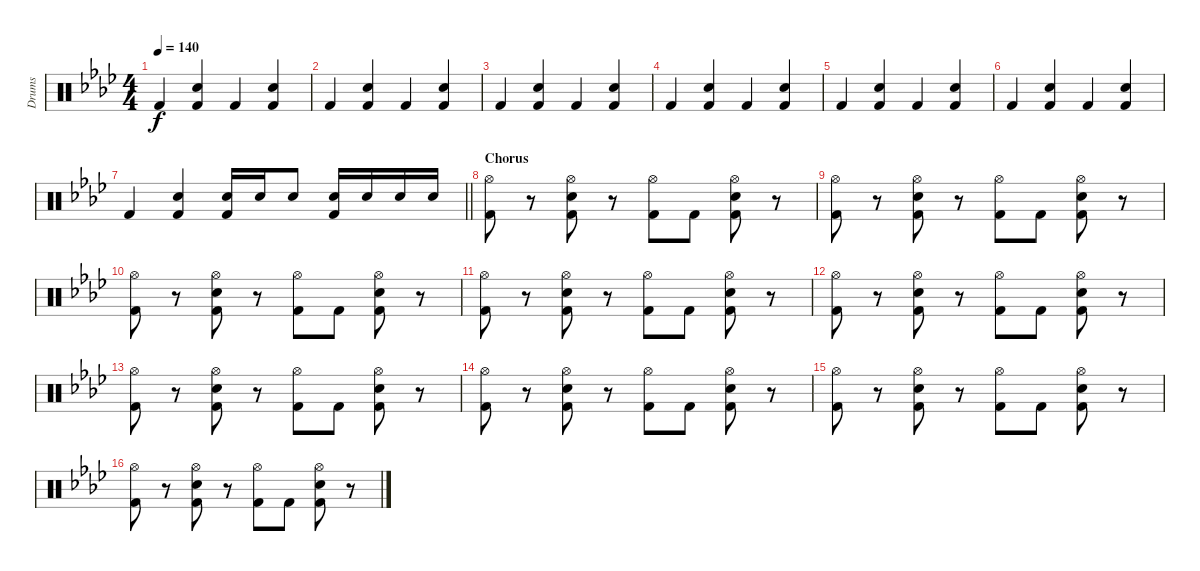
\track ("Drums" "Drums") {instrument percussion}
\staff {score}
\articulation defaults
\ts (4 4)
\tempo 140
\clef neutral
\ks ab "Kick (hit) 2".4{dy f}
("Electric Snare (hit)" "Kick (hit) 2").4 "Kick (hit) 2".4 ("Electric Snare (hit)" "Kick (hit) 2").4 |
"Kick (hit) 2".4 ("Electric Snare (hit)" "Kick (hit) 2").4 "Kick (hit) 2".4 ("Electric Snare (hit)" "Kick (hit) 2").4 |
"Kick (hit) 2".4 ("Electric Snare (hit)" "Kick (hit) 2").4 "Kick (hit) 2".4 ("Electric Snare (hit)" "Kick (hit) 2").4 |
"Kick (hit) 2".4 ("Electric Snare (hit)" "Kick (hit) 2").4 "Kick (hit) 2".4 ("Electric Snare (hit)" "Kick (hit) 2").4 |
"Kick (hit) 2".4 ("Electric Snare (hit)" "Kick (hit) 2").4 "Kick (hit) 2".4 ("Electric Snare (hit)" "Kick (hit) 2").4 |
"Kick (hit) 2".4 ("Electric Snare (hit)" "Kick (hit) 2").4 "Kick (hit) 2".4 ("Electric Snare (hit)" "Kick (hit) 2").4 |
\barLineRight lightlight "Kick (hit) 2".4
("Electric Snare (hit)" "Kick (hit) 2").4 ("Electric Snare (hit)" "Kick (hit) 2").16 "Electric Snare (hit)".16 "Electric Snare (hit)".8 ("Electric Snare (hit)" "Kick (hit) 2").16 "Electric Snare (hit)".16 "Electric Snare (hit)".16 "Electric Snare (hit)".16 |
\section ("" "Chorus")
("Hi-Hat (open)" "Kick (hit) 2").8 r.8 ("Hi-Hat (open)" "Electric Snare (hit)" "Kick (hit) 2").8 r.8 ("Hi-Hat (open)" "Kick (hit) 2").8 "Kick (hit) 2".8 ("Hi-Hat (open)" "Electric Snare (hit)" "Kick (hit) 2").8 r.8 |
("Hi-Hat (open)" "Kick (hit) 2").8 r.8 ("Hi-Hat (open)" "Electric Snare (hit)" "Kick (hit) 2").8 r.8 ("Hi-Hat (open)" "Kick (hit) 2").8 "Kick (hit) 2".8 ("Hi-Hat (open)" "Electric Snare (hit)" "Kick (hit) 2").8 r.8 |
("Hi-Hat (open)" "Kick (hit) 2").8 r.8 ("Hi-Hat (open)" "Electric Snare (hit)" "Kick (hit) 2").8 r.8 ("Hi-Hat (open)" "Kick (hit) 2").8 "Kick (hit) 2".8 ("Hi-Hat (open)" "Electric Snare (hit)" "Kick (hit) 2").8 r.8 |
("Hi-Hat (open)" "Kick (hit) 2").8 r.8 ("Hi-Hat (open)" "Electric Snare (hit)" "Kick (hit) 2").8 r.8 ("Hi-Hat (open)" "Kick (hit) 2").8 "Kick (hit) 2".8 ("Hi-Hat (open)" "Electric Snare (hit)" "Kick (hit) 2").8 r.8 |
("Hi-Hat (open)" "Kick (hit) 2").8 r.8 ("Hi-Hat (open)" "Electric Snare (hit)" "Kick (hit) 2").8 r.8 ("Hi-Hat (open)" "Kick (hit) 2").8 "Kick (hit) 2".8 ("Hi-Hat (open)" "Electric Snare (hit)" "Kick (hit) 2").8 r.8 |
("Hi-Hat (open)" "Kick (hit) 2").8 r.8 ("Hi-Hat (open)" "Electric Snare (hit)" "Kick (hit) 2").8 r.8 ("Hi-Hat (open)" "Kick (hit) 2").8 "Kick (hit) 2".8 ("Hi-Hat (open)" "Electric Snare (hit)" "Kick (hit) 2").8 r.8 |
("Hi-Hat (open)" "Kick (hit) 2").8 r.8 ("Hi-Hat (open)" "Electric Snare (hit)" "Kick (hit) 2").8 r.8 ("Hi-Hat (open)" "Kick (hit) 2").8 "Kick (hit) 2".8 ("Hi-Hat (open)" "Electric Snare (hit)" "Kick (hit) 2").8 r.8 |
("Hi-Hat (open)" "Kick (hit) 2").8 r.8 ("Hi-Hat (open)" "Electric Snare (hit)" "Kick (hit) 2").8 r.8 ("Hi-Hat (open)" "Kick (hit) 2").8 "Kick (hit) 2".8 ("Hi-Hat (open)" "Electric Snare (hit)" "Kick (hit) 2").8 r.8 |
("Hi-Hat (open)" "Kick (hit) 2").8 r.8 ("Hi-Hat (open)" "Electric Snare (hit)" "Kick (hit) 2").8 r.8 ("Hi-Hat (open)" "Kick (hit) 2").8 "Kick (hit) 2".8 ("Hi-Hat (open)" "Electric Snare (hit)" "Kick (hit) 2").8 r.8
